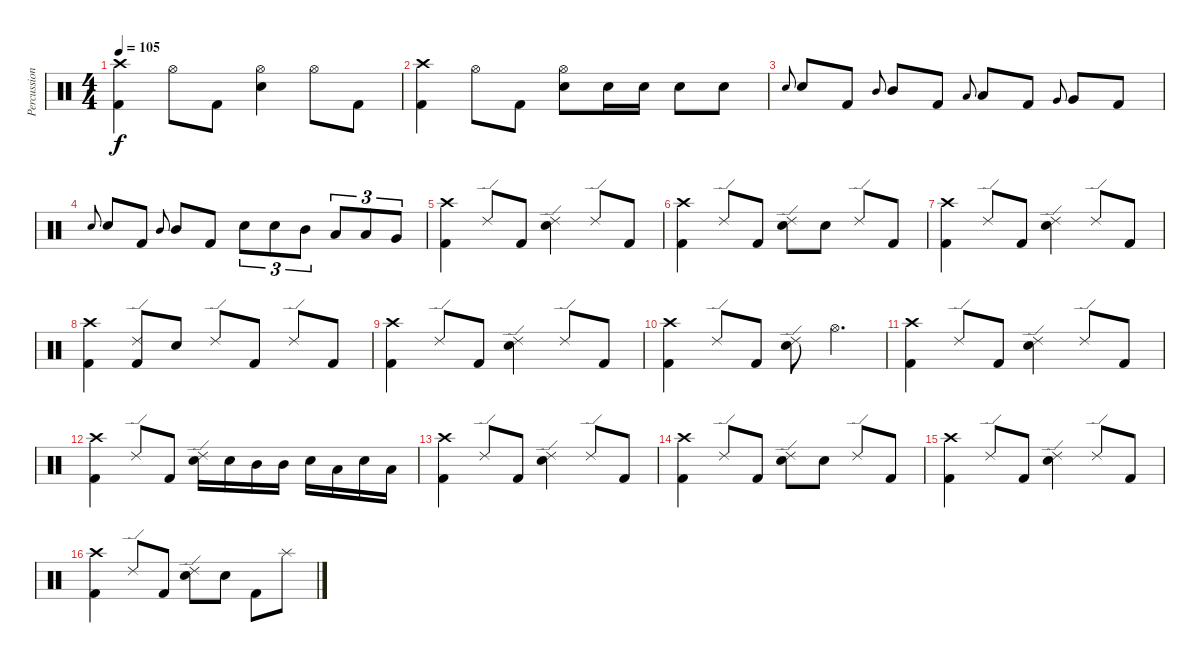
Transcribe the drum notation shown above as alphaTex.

\track ("Percussion" "Percussion") {instrument percussion}
\staff {score}
\articulation defaults
\ts (4 4)
\tempo 105
\clef neutral
\ks c
("Crash high (hit)" "Kick (hit) 2").4{dy f} "Hi-Hat (open)".8 "Kick (hit) 2".8 ("Hi-Hat (open)" "Electric Snare (hit)").4 "Hi-Hat (open)".8 "Kick (hit) 2".8 |
("Crash high (hit)" "Kick (hit) 2").4 "Hi-Hat (open)".8 "Kick (hit) 2".8 ("Hi-Hat (open)" "Electric Snare (hit)").8 "Electric Snare (hit)".16 "Electric Snare (hit)".16 "Electric Snare (hit)".8 "Electric Snare (hit)".8 |
"Electric Snare (hit)".8{gr onbeat} "Electric Snare (hit)".8 "Kick (hit) 2".8 "Mid Tom (hit)".8{gr onbeat} "Mid Tom (hit)".8 "Kick (hit) 2".8 "Low Tom (hit)".8{gr onbeat} "Low Tom (hit)".8 "Kick (hit) 2".8 "Very Low Tom (hit)".8{gr onbeat} "Very Low Tom (hit)".8 "Kick (hit) 2".8 |
"Electric Snare (hit)".8{gr onbeat} "Electric Snare (hit)".8 "Kick (hit) 2".8 "Mid Tom (hit)".8{gr onbeat} "Mid Tom (hit)".8 "Kick (hit) 2".8 "Electric Snare (hit)".8{tu (3 2)} "Electric Snare (hit)".8{tu (3 2)} "Mid Tom (hit)".8{tu (3 2)} "Low Tom (hit)".8{tu (3 2)} "Low Tom (hit)".8{tu (3 2)} "Very Low Tom (hit)".8{tu (3 2)} |
("Crash high (hit)" "Kick (hit) 2").4 "Ride (edge) 2".8 "Kick (hit) 2".8 ("Ride (edge) 2" "Electric Snare (hit)").4 "Ride (edge) 2".8 "Kick (hit) 2".8 |
("Crash high (hit)" "Kick (hit) 2").4 "Ride (edge) 2".8 "Kick (hit) 2".8 ("Ride (edge) 2" "Electric Snare (hit)").8 "Electric Snare (hit)".8 "Ride (edge) 2".8 "Kick (hit) 2".8 |
("Crash high (hit)" "Kick (hit) 2").4 "Ride (edge) 2".8 "Kick (hit) 2".8 ("Ride (edge) 2" "Electric Snare (hit)").4 "Ride (edge) 2".8 "Kick (hit) 2".8 |
("Crash high (hit)" "Kick (hit) 2").4 ("Ride (edge) 2" "Kick (hit) 2").8 "Electric Snare (hit)".8 "Ride (edge) 2".8 "Kick (hit) 2".8 "Ride (edge) 2".8 "Kick (hit) 2".8 |
("Crash high (hit)" "Kick (hit) 2").4 "Ride (edge) 2".8 "Kick (hit) 2".8 ("Ride (edge) 2" "Electric Snare (hit)").4 "Ride (edge) 2".8 "Kick (hit) 2".8 |
("Crash high (hit)" "Kick (hit) 2").4 "Ride (edge) 2".8 "Kick (hit) 2".8 ("Ride (edge) 2" "Electric Snare (hit)").8 "Hi-Hat (open)".4{d} |
("Crash high (hit)" "Kick (hit) 2").4 "Ride (edge) 2".8 "Kick (hit) 2".8 ("Ride (edge) 2" "Electric Snare (hit)").4 "Ride (edge) 2".8 "Kick (hit) 2".8 |
("Crash high (hit)" "Kick (hit) 2").4 "Ride (edge) 2".8 "Kick (hit) 2".8 ("Ride (edge) 2" "Electric Snare (hit)").16 "Electric Snare (hit)".16 "Mid Tom (hit)".16 "Mid Tom (hit)".16 "Electric Snare (hit)".16 "Low Tom (hit)".16 "Electric Snare (hit)".16 "Low Tom (hit)".16 |
("Crash high (hit)" "Kick (hit) 2").4 "Ride (edge) 2".8 "Kick (hit) 2".8 ("Ride (edge) 2" "Electric Snare (hit)").4 "Ride (edge) 2".8 "Kick (hit) 2".8 |
("Crash high (hit)" "Kick (hit) 2").4 "Ride (edge) 2".8 "Kick (hit) 2".8 ("Ride (edge) 2" "Electric Snare (hit)").8 "Electric Snare (hit)".8 "Ride (edge) 2".8 "Kick (hit) 2".8 |
("Crash high (hit)" "Kick (hit) 2").4 "Ride (edge) 2".8 "Kick (hit) 2".8 ("Ride (edge) 2" "Electric Snare (hit)").4 "Ride (edge) 2".8 "Kick (hit) 2".8 |
("Crash high (hit)" "Kick (hit) 2").4 "Ride (edge) 2".8 "Kick (hit) 2".8 ("Ride (edge) 2" "Electric Snare (hit)").8 "Electric Snare (hit)".8 "Kick (hit) 2".8 "Splash (hit)".8
